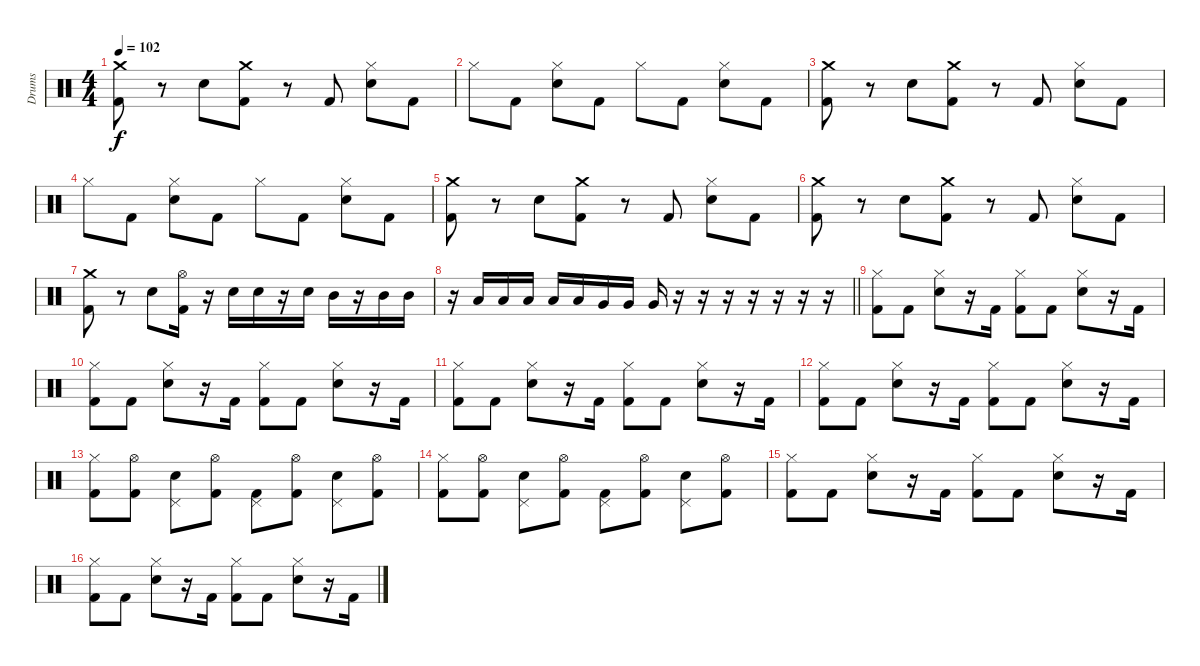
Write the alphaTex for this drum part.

\track ("Drums" "Drums") {instrument percussion}
\staff {score}
\articulation defaults
\ts (4 4)
\tempo 102
\clef neutral
\ks c
("Crash medium (hit)" "Kick (hit) 2").8{dy f} r.8 "Snare (hit) 2".8 ("Crash medium (hit)" "Kick (hit) 2").8 r.8 "Kick (hit) 2".8 ("Hi-Hat (closed)" "Snare (hit) 2").8 "Kick (hit) 2".8 |
"Hi-Hat (closed)".8 "Kick (hit) 2".8 ("Hi-Hat (closed)" "Snare (hit) 2").8 "Kick (hit) 2".8 "Hi-Hat (closed)".8 "Kick (hit) 2".8 ("Hi-Hat (closed)" "Snare (hit) 2").8 "Kick (hit) 2".8 |
("Crash medium (hit)" "Kick (hit) 2").8 r.8 "Snare (hit) 2".8 ("Crash medium (hit)" "Kick (hit) 2").8 r.8 "Kick (hit) 2".8 ("Hi-Hat (closed)" "Snare (hit) 2").8 "Kick (hit) 2".8 |
"Hi-Hat (closed)".8 "Kick (hit) 2".8 ("Hi-Hat (closed)" "Snare (hit) 2").8 "Kick (hit) 2".8 "Hi-Hat (closed)".8 "Kick (hit) 2".8 ("Hi-Hat (closed)" "Snare (hit) 2").8 "Kick (hit) 2".8 |
("Crash medium (hit)" "Kick (hit) 2").8 r.8 "Snare (hit) 2".8 ("Crash medium (hit)" "Kick (hit) 2").8 r.8 "Kick (hit) 2".8 ("Hi-Hat (closed)" "Snare (hit) 2").8 "Kick (hit) 2".8 |
("Crash medium (hit)" "Kick (hit) 2").8 r.8 "Snare (hit) 2".8 ("Crash medium (hit)" "Kick (hit) 2").8 r.8 "Kick (hit) 2".8 ("Hi-Hat (closed)" "Snare (hit) 2").8 "Kick (hit) 2".8 |
("Crash medium (hit)" "Kick (hit) 2").8 r.8 "Snare (hit) 2".8 ("Hi-Hat (open)" "Kick (hit) 2").16 r.16 "Snare (hit) 2".16 "Snare (hit) 2".16 r.16 "Snare (hit) 2".16 "Mid Tom (hit)".16 r.16 "Mid Tom (hit)".16 "Mid Tom (hit)".16 |
\barLineRight lightlight
r.16 "Low Tom (hit)".16 "Low Tom (hit)".16 "Low Tom (hit)".16 "Low Tom (hit)".16 "Low Tom (hit)".16 "Very Low Tom (hit)".16 "Very Low Tom (hit)".16 "Very Low Tom (hit)".16 r.16 r.16 r.16 r.16 r.16 r.16 r.16 |
("Hi-Hat (closed)" "Kick (hit) 2").8 "Kick (hit) 2".8 ("Hi-Hat (closed)" "Snare (hit) 2").8 r.16 "Kick (hit) 2".16 ("Hi-Hat (closed)" "Kick (hit) 2").8 "Kick (hit) 2".8 ("Hi-Hat (closed)" "Snare (hit) 2").8 r.16 "Kick (hit) 2".16 |
("Hi-Hat (closed)" "Kick (hit) 2").8 "Kick (hit) 2".8 ("Hi-Hat (closed)" "Snare (hit) 2").8 r.16 "Kick (hit) 2".16 ("Hi-Hat (closed)" "Kick (hit) 2").8 "Kick (hit) 2".8 ("Hi-Hat (closed)" "Snare (hit) 2").8 r.16 "Kick (hit) 2".16 |
("Hi-Hat (closed)" "Kick (hit) 2").8 "Kick (hit) 2".8 ("Hi-Hat (closed)" "Snare (hit) 2").8 r.16 "Kick (hit) 2".16 ("Hi-Hat (closed)" "Kick (hit) 2").8 "Kick (hit) 2".8 ("Hi-Hat (closed)" "Snare (hit) 2").8 r.16 "Kick (hit) 2".16 |
("Hi-Hat (closed)" "Kick (hit) 2").8 "Kick (hit) 2".8 ("Hi-Hat (closed)" "Snare (hit) 2").8 r.16 "Kick (hit) 2".16 ("Hi-Hat (closed)" "Kick (hit) 2").8 "Kick (hit) 2".8 ("Hi-Hat (closed)" "Snare (hit) 2").8 r.16 "Kick (hit) 2".16 |
("Hi-Hat (closed)" "Kick (hit) 2").8 ("Hi-Hat (open)" "Kick (hit) 2").8 ("Pedal Hi-Hat (hit)" "Snare (hit) 2").8 ("Hi-Hat (open)" "Kick (hit) 2").8 ("Pedal Hi-Hat (hit)" "Kick (hit) 2").8 ("Hi-Hat (open)" "Kick (hit) 2").8 ("Pedal Hi-Hat (hit)" "Snare (hit) 2").8 ("Hi-Hat (open)" "Kick (hit) 2").8 |
("Hi-Hat (closed)" "Kick (hit) 2").8 ("Hi-Hat (open)" "Kick (hit) 2").8 ("Pedal Hi-Hat (hit)" "Snare (hit) 2").8 ("Hi-Hat (open)" "Kick (hit) 2").8 ("Pedal Hi-Hat (hit)" "Kick (hit) 2").8 ("Hi-Hat (open)" "Kick (hit) 2").8 ("Pedal Hi-Hat (hit)" "Snare (hit) 2").8 ("Hi-Hat (open)" "Kick (hit) 2").8 |
("Hi-Hat (closed)" "Kick (hit) 2").8 "Kick (hit) 2".8 ("Hi-Hat (closed)" "Snare (hit) 2").8 r.16 "Kick (hit) 2".16 ("Hi-Hat (closed)" "Kick (hit) 2").8 "Kick (hit) 2".8 ("Hi-Hat (closed)" "Snare (hit) 2").8 r.16 "Kick (hit) 2".16 |
("Hi-Hat (closed)" "Kick (hit) 2").8 "Kick (hit) 2".8 ("Hi-Hat (closed)" "Snare (hit) 2").8 r.16 "Kick (hit) 2".16 ("Hi-Hat (closed)" "Kick (hit) 2").8 "Kick (hit) 2".8 ("Hi-Hat (closed)" "Snare (hit) 2").8 r.16 "Kick (hit) 2".16
